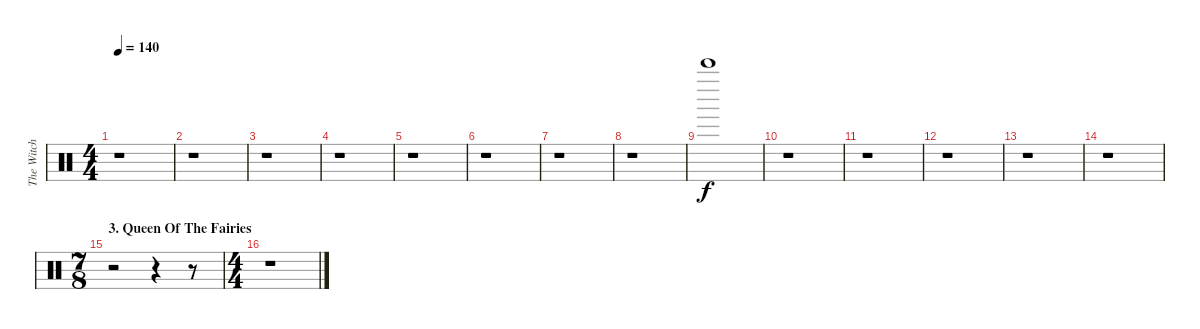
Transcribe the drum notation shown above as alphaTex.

\track ("The Witch" "The Witch") {instrument percussion}
\staff {score}
\articulation defaults
\ts (4 4)
\tempo 140
\clef neutral
\ks c
r.1{dy f} |
r.1 |
r.1 |
r.1 |
r.1 |
r.1 |
r.1 |
r.1 |
"Bell Tree (hit)".1 |
r.1 |
r.1 |
r.1 |
r.1 |
r.1 |
\ts (7 8)
\section ("" "3. Queen Of The Fairies")
r.2 r.4 r.8 |
\ts (4 4)
r.1
